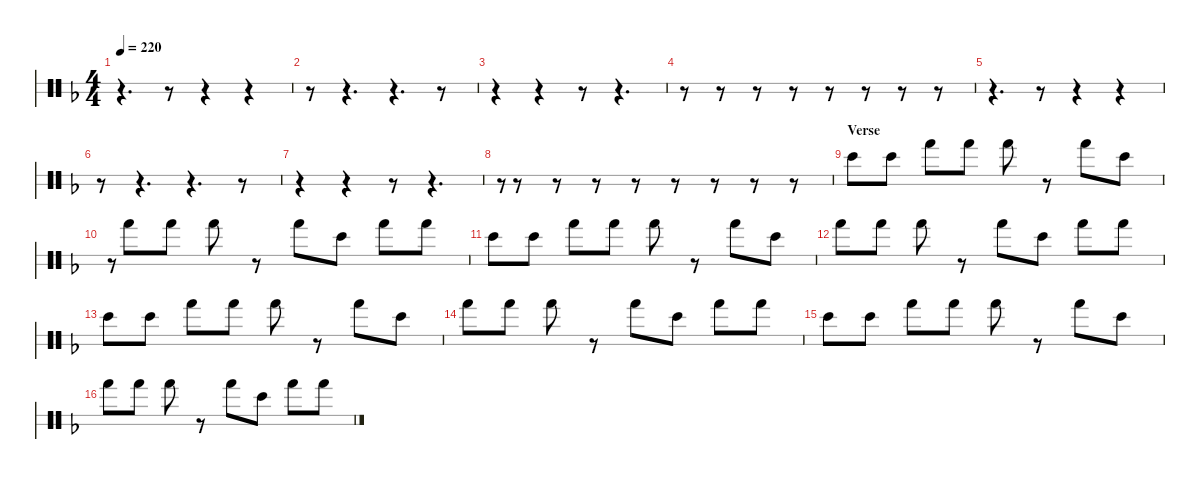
\hideDynamics
\bracketExtendMode nobrackets
\singleTrackTrackNamePolicy hidden
\multiTrackTrackNamePolicy hidden
\firstSystemTrackNameMode fullname
\firstSystemTrackNameOrientation horizontal
\otherSystemsTrackNameOrientation horizontal
\track ("Bongos" "bngKit") {instrument percussion}
\staff {score 2}
\articulation defaults
\ts (4 4)
\tempo 220
\clef neutral
\ks dminor
r.4{d dy mp} r.8 r.4 r.4 |
r.8 r.4{d} r.4{d} r.8 |
r.4 r.4 r.8 r.4{d} |
r.8 r.8 r.8 r.8 r.8 r.8 r.8 r.8 |
r.4{d} r.8 r.4 r.4 |
r.8 r.4{d} r.4{d} r.8 |
r.4 r.4 r.8 r.4{d} |
r.8{gr} r.8 r.8 r.8 r.8 r.8 r.8 r.8 r.8 |
\section ("" "Verse")
"Bongo High (hit)"{acc forcenatural}.8 "Bongo High (hit)"{acc forcenatural}.8 "Hand (hit)"{acc forcenatural}.8{dy p} "Hand (hit)"{acc forcenatural}.8 "Hand (hit)"{acc forcenatural}.8{dy mp} r.8 "Hand (hit)"{acc forcenatural}.8 "Bongo High (hit)"{acc forcenatural}.8 |
r.8{gr} "Hand (hit)"{acc forcenatural}.8{dy p} "Hand (hit)"{acc forcenatural}.8 "Hand (hit)"{acc forcenatural}.8{dy mp} r.8 "Hand (hit)"{acc forcenatural}.8 "Bongo High (hit)"{acc forcenatural}.8 "Hand (hit)"{acc forcenatural}.8{dy p} "Hand (hit)"{acc forcenatural}.8 |
"Bongo High (hit)"{acc forcenatural}.8{dy mp} "Bongo High (hit)"{acc forcenatural}.8 "Hand (hit)"{acc forcenatural}.8{dy p} "Hand (hit)"{acc forcenatural}.8 "Hand (hit)"{acc forcenatural}.8{dy mp} r.8 "Hand (hit)"{acc forcenatural}.8 "Bongo High (hit)"{acc forcenatural}.8 |
"Hand (hit)"{acc forcenatural}.8{dy p} "Hand (hit)"{acc forcenatural}.8 "Hand (hit)"{acc forcenatural}.8{dy mp} r.8 "Hand (hit)"{acc forcenatural}.8 "Bongo High (hit)"{acc forcenatural}.8 "Hand (hit)"{acc forcenatural}.8{dy p} "Hand (hit)"{acc forcenatural}.8 |
"Bongo High (hit)"{acc forcenatural}.8{dy mp} "Bongo High (hit)"{acc forcenatural}.8 "Hand (hit)"{acc forcenatural}.8{dy p} "Hand (hit)"{acc forcenatural}.8 "Hand (hit)"{acc forcenatural}.8{dy mp} r.8 "Hand (hit)"{acc forcenatural}.8 "Bongo High (hit)"{acc forcenatural}.8 |
"Hand (hit)"{acc forcenatural}.8{dy p} "Hand (hit)"{acc forcenatural}.8 "Hand (hit)"{acc forcenatural}.8{dy mp} r.8 "Hand (hit)"{acc forcenatural}.8 "Bongo High (hit)"{acc forcenatural}.8 "Hand (hit)"{acc forcenatural}.8{dy p} "Hand (hit)"{acc forcenatural}.8 |
"Bongo High (hit)"{acc forcenatural}.8{dy mp} "Bongo High (hit)"{acc forcenatural}.8 "Hand (hit)"{acc forcenatural}.8{dy p} "Hand (hit)"{acc forcenatural}.8 "Hand (hit)"{acc forcenatural}.8{dy mp} r.8 "Hand (hit)"{acc forcenatural}.8 "Bongo High (hit)"{acc forcenatural}.8 |
"Hand (hit)"{acc forcenatural}.8{dy p} "Hand (hit)"{acc forcenatural}.8 "Hand (hit)"{acc forcenatural}.8{dy mp} r.8 "Hand (hit)"{acc forcenatural}.8 "Bongo High (hit)"{acc forcenatural}.8 "Hand (hit)"{acc forcenatural}.8{dy p} "Hand (hit)"{acc forcenatural}.8
